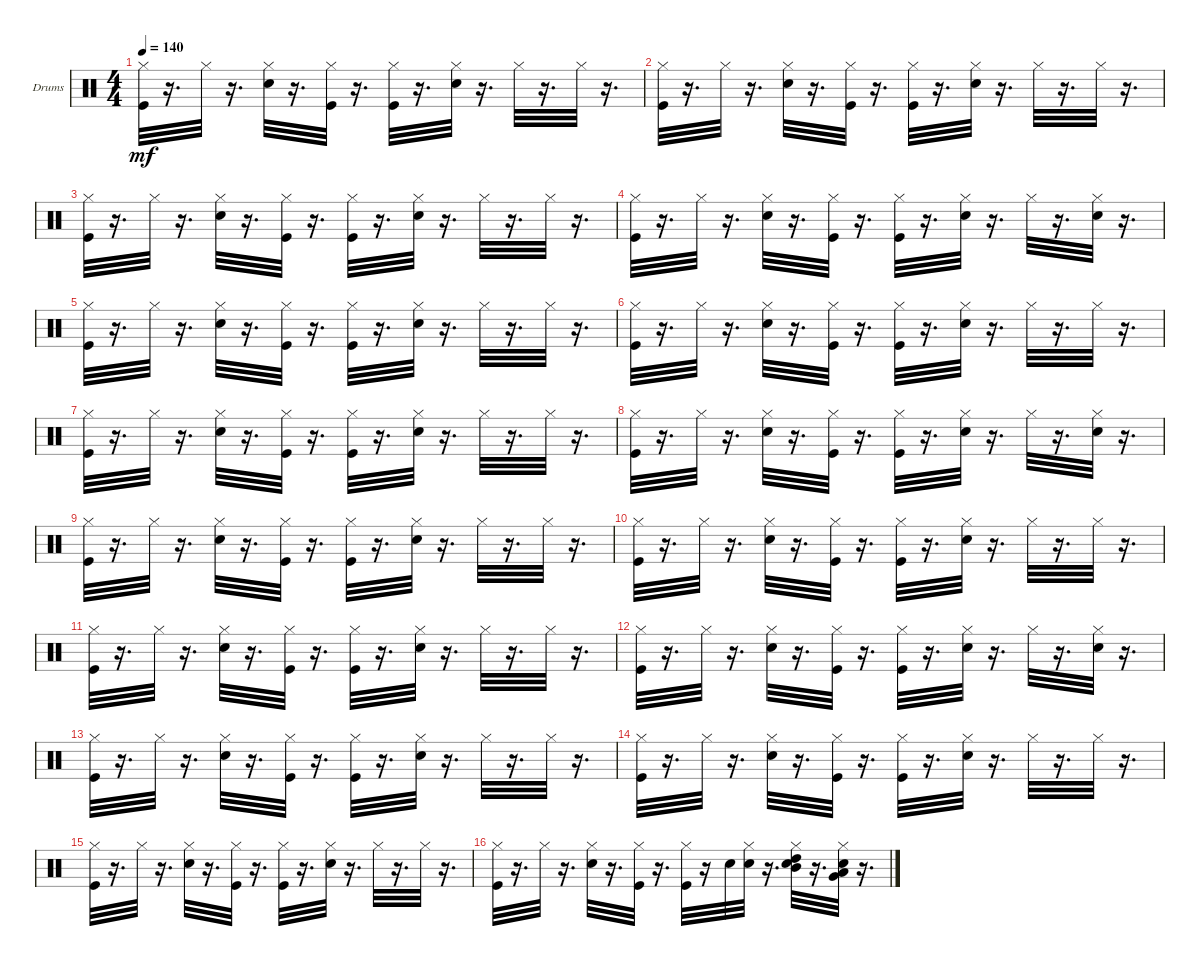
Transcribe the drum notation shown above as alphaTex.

\bracketExtendMode groupsimilarinstruments
\firstSystemTrackNameOrientation horizontal
\otherSystemsTrackNameOrientation horizontal
\track ("" "Drums") {instrument percussion}
\staff {score}
\articulation defaults
\ts (4 4)
\tempo 140
\clef neutral
\ks c
("Hi-Hat (closed)" "Kick (hit)").32{dy mf} r.16{d} "Hi-Hat (closed)".32 r.16{d} ("Snare (hit) 2" "Hi-Hat (closed)").32 r.16{d} ("Kick (hit)" "Hi-Hat (closed)").32 r.16{d} ("Kick (hit)" "Hi-Hat (closed)").32 r.16{d} ("Snare (hit) 2" "Hi-Hat (closed)").32 r.16{d} "Hi-Hat (closed)".32 r.16{d} "Hi-Hat (closed)".32 r.16{d} |
("Hi-Hat (closed)" "Kick (hit)").32 r.16{d} "Hi-Hat (closed)".32 r.16{d} ("Snare (hit) 2" "Hi-Hat (closed)").32 r.16{d} ("Kick (hit)" "Hi-Hat (closed)").32 r.16{d} ("Kick (hit)" "Hi-Hat (closed)").32 r.16{d} ("Snare (hit) 2" "Hi-Hat (closed)").32 r.16{d} "Hi-Hat (closed)".32 r.16{d} "Hi-Hat (closed)".32 r.16{d} |
("Hi-Hat (closed)" "Kick (hit)").32 r.16{d} "Hi-Hat (closed)".32 r.16{d} ("Snare (hit) 2" "Hi-Hat (closed)").32 r.16{d} ("Kick (hit)" "Hi-Hat (closed)").32 r.16{d} ("Kick (hit)" "Hi-Hat (closed)").32 r.16{d} ("Snare (hit) 2" "Hi-Hat (closed)").32 r.16{d} "Hi-Hat (closed)".32 r.16{d} "Hi-Hat (closed)".32 r.16{d} |
("Hi-Hat (closed)" "Kick (hit)").32 r.16{d} "Hi-Hat (closed)".32 r.16{d} ("Snare (hit) 2" "Hi-Hat (closed)").32 r.16{d} ("Kick (hit)" "Hi-Hat (closed)").32 r.16{d} ("Kick (hit)" "Hi-Hat (closed)").32 r.16{d} ("Snare (hit) 2" "Hi-Hat (closed)").32 r.16{d} "Hi-Hat (closed)".32 r.16{d} ("Snare (hit) 2" "Hi-Hat (closed)").32 r.16{d} |
("Hi-Hat (closed)" "Kick (hit)").32 r.16{d} "Hi-Hat (closed)".32 r.16{d} ("Snare (hit) 2" "Hi-Hat (closed)").32 r.16{d} ("Kick (hit)" "Hi-Hat (closed)").32 r.16{d} ("Kick (hit)" "Hi-Hat (closed)").32 r.16{d} ("Snare (hit) 2" "Hi-Hat (closed)").32 r.16{d} "Hi-Hat (closed)".32 r.16{d} "Hi-Hat (closed)".32 r.16{d} |
("Hi-Hat (closed)" "Kick (hit)").32 r.16{d} "Hi-Hat (closed)".32 r.16{d} ("Snare (hit) 2" "Hi-Hat (closed)").32 r.16{d} ("Kick (hit)" "Hi-Hat (closed)").32 r.16{d} ("Kick (hit)" "Hi-Hat (closed)").32 r.16{d} ("Snare (hit) 2" "Hi-Hat (closed)").32 r.16{d} "Hi-Hat (closed)".32 r.16{d} "Hi-Hat (closed)".32 r.16{d} |
("Hi-Hat (closed)" "Kick (hit)").32 r.16{d} "Hi-Hat (closed)".32 r.16{d} ("Snare (hit) 2" "Hi-Hat (closed)").32 r.16{d} ("Kick (hit)" "Hi-Hat (closed)").32 r.16{d} ("Kick (hit)" "Hi-Hat (closed)").32 r.16{d} ("Snare (hit) 2" "Hi-Hat (closed)").32 r.16{d} "Hi-Hat (closed)".32 r.16{d} "Hi-Hat (closed)".32 r.16{d} |
("Hi-Hat (closed)" "Kick (hit)").32 r.16{d} "Hi-Hat (closed)".32 r.16{d} ("Snare (hit) 2" "Hi-Hat (closed)").32 r.16{d} ("Kick (hit)" "Hi-Hat (closed)").32 r.16{d} ("Kick (hit)" "Hi-Hat (closed)").32 r.16{d} ("Snare (hit) 2" "Hi-Hat (closed)").32 r.16{d} "Hi-Hat (closed)".32 r.16{d} ("Snare (hit) 2" "Hi-Hat (closed)").32 r.16{d} |
("Hi-Hat (closed)" "Kick (hit)").32 r.16{d} "Hi-Hat (closed)".32 r.16{d} ("Snare (hit) 2" "Hi-Hat (closed)").32 r.16{d} ("Kick (hit)" "Hi-Hat (closed)").32 r.16{d} ("Kick (hit)" "Hi-Hat (closed)").32 r.16{d} ("Snare (hit) 2" "Hi-Hat (closed)").32 r.16{d} "Hi-Hat (closed)".32 r.16{d} "Hi-Hat (closed)".32 r.16{d} |
("Hi-Hat (closed)" "Kick (hit)").32 r.16{d} "Hi-Hat (closed)".32 r.16{d} ("Snare (hit) 2" "Hi-Hat (closed)").32 r.16{d} ("Kick (hit)" "Hi-Hat (closed)").32 r.16{d} ("Kick (hit)" "Hi-Hat (closed)").32 r.16{d} ("Snare (hit) 2" "Hi-Hat (closed)").32 r.16{d} "Hi-Hat (closed)".32 r.16{d} "Hi-Hat (closed)".32 r.16{d} |
("Hi-Hat (closed)" "Kick (hit)").32 r.16{d} "Hi-Hat (closed)".32 r.16{d} ("Snare (hit) 2" "Hi-Hat (closed)").32 r.16{d} ("Kick (hit)" "Hi-Hat (closed)").32 r.16{d} ("Kick (hit)" "Hi-Hat (closed)").32 r.16{d} ("Snare (hit) 2" "Hi-Hat (closed)").32 r.16{d} "Hi-Hat (closed)".32 r.16{d} "Hi-Hat (closed)".32 r.16{d} |
("Hi-Hat (closed)" "Kick (hit)").32 r.16{d} "Hi-Hat (closed)".32 r.16{d} ("Snare (hit) 2" "Hi-Hat (closed)").32 r.16{d} ("Kick (hit)" "Hi-Hat (closed)").32 r.16{d} ("Kick (hit)" "Hi-Hat (closed)").32 r.16{d} ("Snare (hit) 2" "Hi-Hat (closed)").32 r.16{d} "Hi-Hat (closed)".32 r.16{d} ("Snare (hit) 2" "Hi-Hat (closed)").32 r.16{d} |
("Hi-Hat (closed)" "Kick (hit)").32 r.16{d} "Hi-Hat (closed)".32 r.16{d} ("Snare (hit) 2" "Hi-Hat (closed)").32 r.16{d} ("Kick (hit)" "Hi-Hat (closed)").32 r.16{d} ("Kick (hit)" "Hi-Hat (closed)").32 r.16{d} ("Snare (hit) 2" "Hi-Hat (closed)").32 r.16{d} "Hi-Hat (closed)".32 r.16{d} "Hi-Hat (closed)".32 r.16{d} |
("Hi-Hat (closed)" "Kick (hit)").32 r.16{d} "Hi-Hat (closed)".32 r.16{d} ("Snare (hit) 2" "Hi-Hat (closed)").32 r.16{d} ("Kick (hit)" "Hi-Hat (closed)").32 r.16{d} ("Kick (hit)" "Hi-Hat (closed)").32 r.16{d} ("Snare (hit) 2" "Hi-Hat (closed)").32 r.16{d} "Hi-Hat (closed)".32 r.16{d} "Hi-Hat (closed)".32 r.16{d} |
("Hi-Hat (closed)" "Kick (hit)").32 r.16{d} "Hi-Hat (closed)".32 r.16{d} ("Snare (hit) 2" "Hi-Hat (closed)").32 r.16{d} ("Kick (hit)" "Hi-Hat (closed)").32 r.16{d} ("Kick (hit)" "Hi-Hat (closed)").32 r.16{d} ("Snare (hit) 2" "Hi-Hat (closed)").32 r.16{d} "Hi-Hat (closed)".32 r.16{d} "Hi-Hat (closed)".32 r.16{d} |
("Hi-Hat (closed)" "Kick (hit)").32 r.16{d} "Hi-Hat (closed)".32 r.16{d} ("Snare (hit) 2" "Hi-Hat (closed)").32 r.16{d} ("Kick (hit)" "Hi-Hat (closed)").32 r.16{d} ("Kick (hit)" "Hi-Hat (closed)").32 r.16 "Snare (hit) 2".32 ("Snare (hit) 2" "Hi-Hat (closed)").32 r.16{d} ("High Tom (hit)" "Mid Tom (hit)" "Snare (hit) 2" "Hi-Hat (closed)").32 r.16{d} ("Very Low Tom (hit)" "Low Tom (hit)" "Snare (hit) 2" "Hi-Hat (closed)").32 r.16{d}
